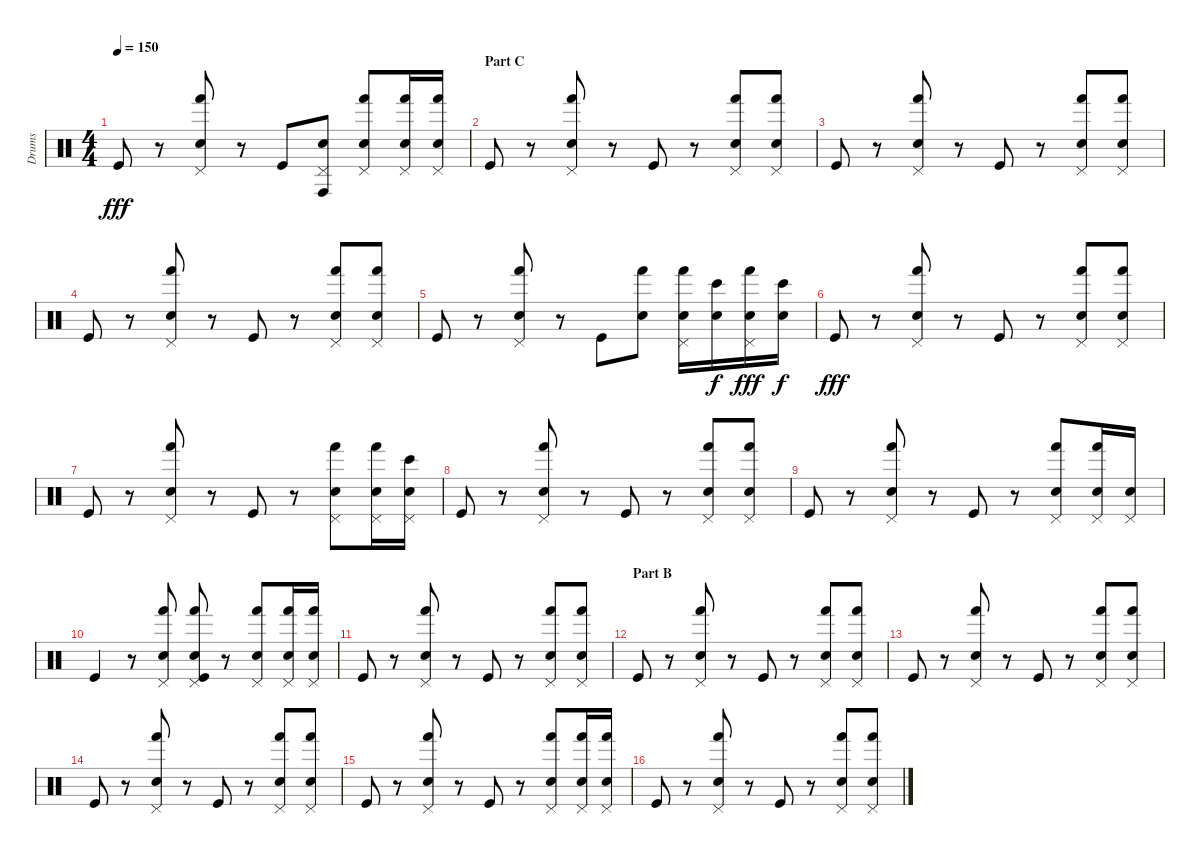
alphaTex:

\track ("Drums" "Drums") {instrument percussion}
\staff {score}
\articulation defaults
\ts (4 4)
\tempo 150
\clef neutral
\ks c "Kick (hit)".8{dy fff}
r.8 ("Pedal Hi-Hat (hit)" "Hand (hit)" "Electric Snare (hit)").8 r.8 "Kick (hit)".8 ("Pedal Hi-Hat (hit)" "Conga high (hit)" "Electric Snare (hit)").8 ("Pedal Hi-Hat (hit)" "Hand (hit)" "Electric Snare (hit)").8 ("Pedal Hi-Hat (hit)" "Hand (hit)" "Electric Snare (hit)").16 ("Pedal Hi-Hat (hit)" "Hand (hit)" "Electric Snare (hit)").16 |
\section ("" "Part C")
"Kick (hit)".8 r.8 ("Pedal Hi-Hat (hit)" "Hand (hit)" "Electric Snare (hit)").8 r.8 "Kick (hit)".8 r.8 ("Pedal Hi-Hat (hit)" "Hand (hit)" "Electric Snare (hit)").8 ("Pedal Hi-Hat (hit)" "Hand (hit)" "Electric Snare (hit)").8 |
"Kick (hit)".8 r.8 ("Pedal Hi-Hat (hit)" "Hand (hit)" "Electric Snare (hit)").8 r.8 "Kick (hit)".8 r.8 ("Pedal Hi-Hat (hit)" "Hand (hit)" "Electric Snare (hit)").8 ("Pedal Hi-Hat (hit)" "Hand (hit)" "Electric Snare (hit)").8 |
"Kick (hit)".8 r.8 ("Pedal Hi-Hat (hit)" "Hand (hit)" "Electric Snare (hit)").8 r.8 "Kick (hit)".8 r.8 ("Pedal Hi-Hat (hit)" "Hand (hit)" "Electric Snare (hit)").8 ("Pedal Hi-Hat (hit)" "Hand (hit)" "Electric Snare (hit)").8 |
"Kick (hit)".8 r.8 ("Pedal Hi-Hat (hit)" "Hand (hit)" "Electric Snare (hit)").8 r.8 "Kick (hit)".8 ("Hand (hit)" "Electric Snare (hit)").8 ("Pedal Hi-Hat (hit)" "Hand (hit)" "Electric Snare (hit)").16 ("Bongo High (hit)" "Electric Snare (hit)").16{dy f} ("Pedal Hi-Hat (hit)" "Hand (hit)" "Electric Snare (hit)").16{dy fff} ("Bongo High (hit)" "Electric Snare (hit)").16{dy f} |
"Kick (hit)".8{dy fff} r.8 ("Pedal Hi-Hat (hit)" "Hand (hit)" "Electric Snare (hit)").8 r.8 "Kick (hit)".8 r.8 ("Pedal Hi-Hat (hit)" "Hand (hit)" "Electric Snare (hit)").8 ("Pedal Hi-Hat (hit)" "Hand (hit)" "Electric Snare (hit)").8 |
"Kick (hit)".8 r.8 ("Pedal Hi-Hat (hit)" "Hand (hit)" "Electric Snare (hit)").8 r.8 "Kick (hit)".8 r.8 ("Pedal Hi-Hat (hit)" "Hand (hit)" "Electric Snare (hit)").8 ("Pedal Hi-Hat (hit)" "Hand (hit)" "Electric Snare (hit)").16 ("Pedal Hi-Hat (hit)" "Bongo High (hit)" "Electric Snare (hit)").16 |
"Kick (hit)".8 r.8 ("Pedal Hi-Hat (hit)" "Hand (hit)" "Electric Snare (hit)").8 r.8 "Kick (hit)".8 r.8 ("Pedal Hi-Hat (hit)" "Hand (hit)" "Electric Snare (hit)").8 ("Pedal Hi-Hat (hit)" "Hand (hit)" "Electric Snare (hit)").8 |
"Kick (hit)".8 r.8 ("Pedal Hi-Hat (hit)" "Hand (hit)" "Electric Snare (hit)").8 r.8 "Kick (hit)".8 r.8 ("Pedal Hi-Hat (hit)" "Hand (hit)" "Electric Snare (hit)").8 ("Pedal Hi-Hat (hit)" "Hand (hit)" "Electric Snare (hit)").16 ("Pedal Hi-Hat (hit)" "Electric Snare (hit)").16 |
"Kick (hit)".4 r.8 ("Pedal Hi-Hat (hit)" "Hand (hit)" "Electric Snare (hit)").8 ("Pedal Hi-Hat (hit)" "Hand (hit)" "Electric Snare (hit)" "Kick (hit)").8 r.8 ("Pedal Hi-Hat (hit)" "Hand (hit)" "Electric Snare (hit)").8 ("Pedal Hi-Hat (hit)" "Hand (hit)" "Electric Snare (hit)").16 ("Pedal Hi-Hat (hit)" "Hand (hit)" "Electric Snare (hit)").16 |
"Kick (hit)".8 r.8 ("Pedal Hi-Hat (hit)" "Hand (hit)" "Electric Snare (hit)").8 r.8 "Kick (hit)".8 r.8 ("Pedal Hi-Hat (hit)" "Hand (hit)" "Electric Snare (hit)").8 ("Pedal Hi-Hat (hit)" "Hand (hit)" "Electric Snare (hit)").8 |
\section ("" "Part B")
"Kick (hit)".8 r.8 ("Pedal Hi-Hat (hit)" "Hand (hit)" "Electric Snare (hit)").8 r.8 "Kick (hit)".8 r.8 ("Pedal Hi-Hat (hit)" "Hand (hit)" "Electric Snare (hit)").8 ("Pedal Hi-Hat (hit)" "Hand (hit)" "Electric Snare (hit)").8 |
"Kick (hit)".8 r.8 ("Pedal Hi-Hat (hit)" "Hand (hit)" "Electric Snare (hit)").8 r.8 "Kick (hit)".8 r.8 ("Pedal Hi-Hat (hit)" "Hand (hit)" "Electric Snare (hit)").8 ("Pedal Hi-Hat (hit)" "Hand (hit)" "Electric Snare (hit)").8 |
"Kick (hit)".8 r.8 ("Pedal Hi-Hat (hit)" "Hand (hit)" "Electric Snare (hit)").8 r.8 "Kick (hit)".8 r.8 ("Pedal Hi-Hat (hit)" "Hand (hit)" "Electric Snare (hit)").8 ("Pedal Hi-Hat (hit)" "Hand (hit)" "Electric Snare (hit)").8 |
"Kick (hit)".8 r.8 ("Pedal Hi-Hat (hit)" "Hand (hit)" "Electric Snare (hit)").8 r.8 "Kick (hit)".8 r.8 ("Pedal Hi-Hat (hit)" "Hand (hit)" "Electric Snare (hit)").8 ("Pedal Hi-Hat (hit)" "Hand (hit)" "Electric Snare (hit)").16 ("Pedal Hi-Hat (hit)" "Hand (hit)" "Electric Snare (hit)").16 |
"Kick (hit)".8 r.8 ("Pedal Hi-Hat (hit)" "Hand (hit)" "Electric Snare (hit)").8 r.8 "Kick (hit)".8 r.8 ("Pedal Hi-Hat (hit)" "Hand (hit)" "Electric Snare (hit)").8 ("Pedal Hi-Hat (hit)" "Hand (hit)" "Electric Snare (hit)").8
